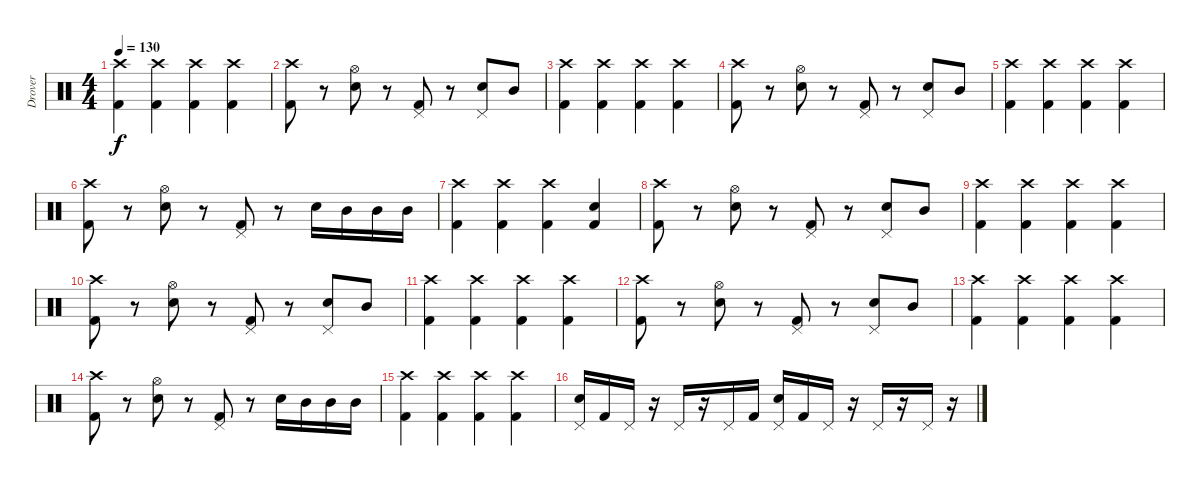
\track ("Drover" "Drover") {instrument percussion}
\staff {score}
\articulation defaults
\ts (4 4)
\tempo 130
\clef neutral
\ks c
("Kick (hit) 2" "Crash high (hit)").4{dy f} ("Kick (hit) 2" "Crash high (hit)").4 ("Kick (hit) 2" "Crash high (hit)").4 ("Kick (hit) 2" "Crash high (hit)").4 |
("Crash high (hit)" "Kick (hit) 2").8 r.8 ("Electric Snare (hit)" "Hi-Hat (open)").8 r.8 ("Kick (hit) 2" "Pedal Hi-Hat (hit)").8 r.8 ("Electric Snare (hit)" "Pedal Hi-Hat (hit)").8 "Mid Tom (hit)".8 |
("Kick (hit) 2" "Crash high (hit)").4 ("Kick (hit) 2" "Crash high (hit)").4 ("Kick (hit) 2" "Crash high (hit)").4 ("Kick (hit) 2" "Crash high (hit)").4 |
("Crash high (hit)" "Kick (hit) 2").8 r.8 ("Electric Snare (hit)" "Hi-Hat (open)").8 r.8 ("Kick (hit) 2" "Pedal Hi-Hat (hit)").8 r.8 ("Electric Snare (hit)" "Pedal Hi-Hat (hit)").8 "Mid Tom (hit)".8 |
("Kick (hit) 2" "Crash high (hit)").4 ("Kick (hit) 2" "Crash high (hit)").4 ("Kick (hit) 2" "Crash high (hit)").4 ("Kick (hit) 2" "Crash high (hit)").4 |
("Crash high (hit)" "Kick (hit) 2").8 r.8 ("Electric Snare (hit)" "Hi-Hat (open)").8 r.8 ("Kick (hit) 2" "Pedal Hi-Hat (hit)").8 r.8 "Snare (hit) 2".16 "Mid Tom (hit)".16 "Mid Tom (hit)".16 "Mid Tom (hit)".16 |
("Kick (hit) 2" "Crash high (hit)").4 ("Kick (hit) 2" "Crash high (hit)").4 ("Kick (hit) 2" "Crash high (hit)").4 ("Electric Snare (hit)" "Kick (hit) 2").4 |
("Crash high (hit)" "Kick (hit) 2").8 r.8 ("Electric Snare (hit)" "Hi-Hat (open)").8 r.8 ("Kick (hit) 2" "Pedal Hi-Hat (hit)").8 r.8 ("Electric Snare (hit)" "Pedal Hi-Hat (hit)").8 "Mid Tom (hit)".8 |
("Kick (hit) 2" "Crash high (hit)").4 ("Kick (hit) 2" "Crash high (hit)").4 ("Kick (hit) 2" "Crash high (hit)").4 ("Kick (hit) 2" "Crash high (hit)").4 |
("Crash high (hit)" "Kick (hit) 2").8 r.8 ("Electric Snare (hit)" "Hi-Hat (open)").8 r.8 ("Kick (hit) 2" "Pedal Hi-Hat (hit)").8 r.8 ("Electric Snare (hit)" "Pedal Hi-Hat (hit)").8 "Mid Tom (hit)".8 |
("Kick (hit) 2" "Crash high (hit)").4 ("Kick (hit) 2" "Crash high (hit)").4 ("Kick (hit) 2" "Crash high (hit)").4 ("Kick (hit) 2" "Crash high (hit)").4 |
("Crash high (hit)" "Kick (hit) 2").8 r.8 ("Electric Snare (hit)" "Hi-Hat (open)").8 r.8 ("Kick (hit) 2" "Pedal Hi-Hat (hit)").8 r.8 ("Electric Snare (hit)" "Pedal Hi-Hat (hit)").8 "Mid Tom (hit)".8 |
("Kick (hit) 2" "Crash high (hit)").4 ("Kick (hit) 2" "Crash high (hit)").4 ("Kick (hit) 2" "Crash high (hit)").4 ("Kick (hit) 2" "Crash high (hit)").4 |
("Crash high (hit)" "Kick (hit) 2").8 r.8 ("Electric Snare (hit)" "Hi-Hat (open)").8 r.8 ("Kick (hit) 2" "Pedal Hi-Hat (hit)").8 r.8 "Snare (hit) 2".16 "Mid Tom (hit)".16 "Mid Tom (hit)".16 "Mid Tom (hit)".16 |
("Kick (hit) 2" "Crash high (hit)").4 ("Kick (hit) 2" "Crash high (hit)").4 ("Kick (hit) 2" "Crash high (hit)").4 ("Kick (hit) 2" "Crash high (hit)").4 |
("Electric Snare (hit)" "Pedal Hi-Hat (hit)").16 "Kick (hit) 2".16 "Pedal Hi-Hat (hit)".16 r.16 "Pedal Hi-Hat (hit)".16 r.16 "Pedal Hi-Hat (hit)".16 "Kick (hit) 2".16 ("Electric Snare (hit)" "Pedal Hi-Hat (hit)").16 "Kick (hit) 2".16 "Pedal Hi-Hat (hit)".16 r.16 "Pedal Hi-Hat (hit)".16 r.16 "Pedal Hi-Hat (hit)".16 r.16
